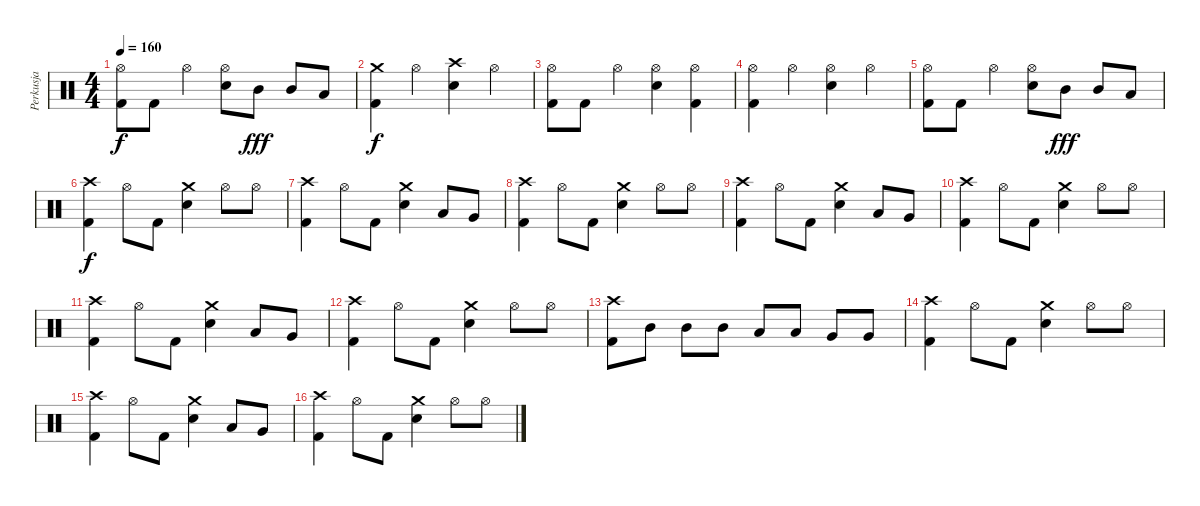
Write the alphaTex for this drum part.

\track ("Perkusja" "Perkusja") {instrument percussion}
\staff {score}
\articulation defaults
\ts (4 4)
\tempo 160
\clef neutral
\ks c
("Hi-Hat (open)" "Kick (hit) 2").8{dy f} "Kick (hit) 2".8 "Hi-Hat (open)".4 ("Hi-Hat (open)" "Snare (hit) 2").8 "Mid Tom (hit)".8{dy fff} "Mid Tom (hit)".8 "Low Tom (hit)".8 |
("Crash medium (hit)" "Kick (hit) 2").4{dy f} "Hi-Hat (open)".4 ("Crash high (hit)" "Snare (hit) 2").4 "Hi-Hat (open)".4 |
("Hi-Hat (open)" "Kick (hit) 2").8 "Kick (hit) 2".8 "Hi-Hat (open)".4 ("Hi-Hat (open)" "Snare (hit) 2").4 ("Hi-Hat (open)" "Kick (hit) 2").4 |
("Hi-Hat (open)" "Kick (hit) 2").4 "Hi-Hat (open)".4 ("Hi-Hat (open)" "Snare (hit) 2").4 "Hi-Hat (open)".4 |
("Hi-Hat (open)" "Kick (hit) 2").8 "Kick (hit) 2".8 "Hi-Hat (open)".4 ("Hi-Hat (open)" "Snare (hit) 2").8 "Mid Tom (hit)".8{dy fff} "Mid Tom (hit)".8 "Low Tom (hit)".8 |
("Crash high (hit)" "Kick (hit) 2").4{dy f} "Hi-Hat (open)".8 "Kick (hit) 2".8 ("Crash medium (hit)" "Snare (hit) 2").4 "Hi-Hat (open)".8 "Hi-Hat (open)".8 |
("Crash high (hit)" "Kick (hit) 2").4 "Hi-Hat (open)".8 "Kick (hit) 2".8 ("Crash medium (hit)" "Snare (hit) 2").4 "Low Tom (hit)".8 "Very Low Tom (hit)".8 |
("Crash high (hit)" "Kick (hit) 2").4 "Hi-Hat (open)".8 "Kick (hit) 2".8 ("Crash medium (hit)" "Snare (hit) 2").4 "Hi-Hat (open)".8 "Hi-Hat (open)".8 |
("Crash high (hit)" "Kick (hit) 2").4 "Hi-Hat (open)".8 "Kick (hit) 2".8 ("Crash medium (hit)" "Snare (hit) 2").4 "Low Tom (hit)".8 "Very Low Tom (hit)".8 |
("Crash high (hit)" "Kick (hit) 2").4 "Hi-Hat (open)".8 "Kick (hit) 2".8 ("Crash medium (hit)" "Snare (hit) 2").4 "Hi-Hat (open)".8 "Hi-Hat (open)".8 |
("Crash high (hit)" "Kick (hit) 2").4 "Hi-Hat (open)".8 "Kick (hit) 2".8 ("Crash medium (hit)" "Snare (hit) 2").4 "Low Tom (hit)".8 "Very Low Tom (hit)".8 |
("Crash high (hit)" "Kick (hit) 2").4 "Hi-Hat (open)".8 "Kick (hit) 2".8 ("Crash medium (hit)" "Snare (hit) 2").4 "Hi-Hat (open)".8 "Hi-Hat (open)".8 |
("Crash high (hit)" "Kick (hit) 2").8 "Mid Tom (hit)".8 "Mid Tom (hit)".8 "Mid Tom (hit)".8 "Low Tom (hit)".8 "Low Tom (hit)".8 "Very Low Tom (hit)".8 "Very Low Tom (hit)".8 |
("Crash high (hit)" "Kick (hit) 2").4 "Hi-Hat (open)".8 "Kick (hit) 2".8 ("Crash medium (hit)" "Snare (hit) 2").4 "Hi-Hat (open)".8 "Hi-Hat (open)".8 |
("Crash high (hit)" "Kick (hit) 2").4 "Hi-Hat (open)".8 "Kick (hit) 2".8 ("Crash medium (hit)" "Snare (hit) 2").4 "Low Tom (hit)".8 "Very Low Tom (hit)".8 |
("Crash high (hit)" "Kick (hit) 2").4 "Hi-Hat (open)".8 "Kick (hit) 2".8 ("Crash medium (hit)" "Snare (hit) 2").4 "Hi-Hat (open)".8 "Hi-Hat (open)".8
